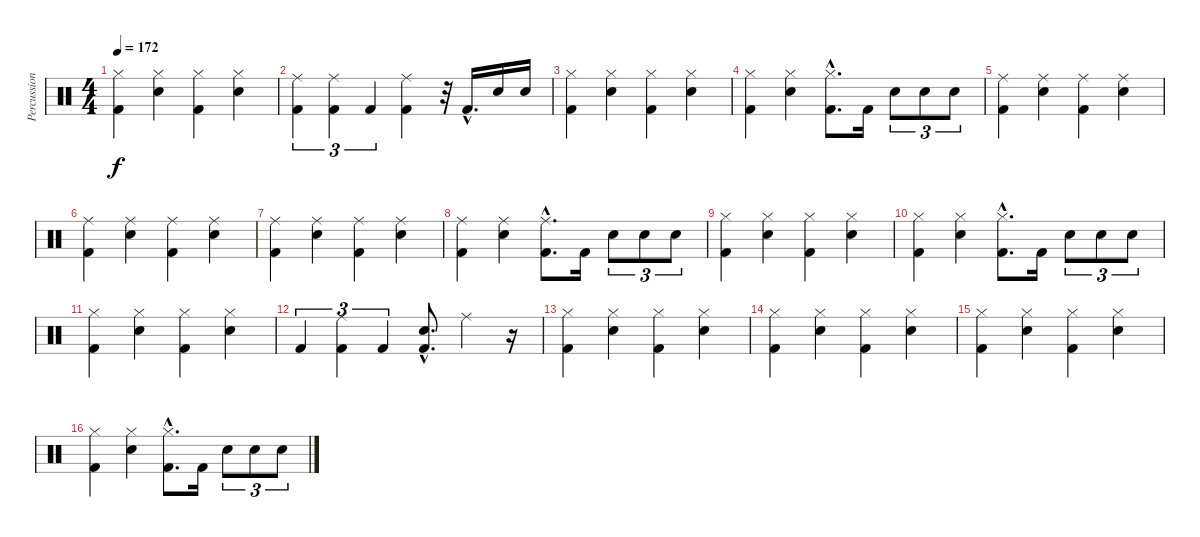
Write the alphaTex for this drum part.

\track ("Percussion" "Percussion") {instrument percussion}
\staff {score}
\articulation defaults
\ts (4 4)
\tempo 172
\clef neutral
\ks c
("Hi-Hat (closed)" "Kick (hit) 2").4{dy f} ("Hi-Hat (closed)" "Snare (hit) 2").4 ("Hi-Hat (closed)" "Kick (hit) 2").4 ("Hi-Hat (closed)" "Snare (hit) 2").4 |
("Ride (middle)" "Kick (hit) 2").4{tu (3 2)} ("Ride (middle)" "Kick (hit) 2").4{tu (3 2)} "Kick (hit) 2".4{tu (3 2)} ("Ride (middle)" "Kick (hit) 2").4 r.32 "Kick (hit) 2"{hac}.16{d} "Snare (hit) 2".16 "Snare (hit) 2".16 |
("Hi-Hat (closed)" "Kick (hit) 2").4 ("Hi-Hat (closed)" "Snare (hit) 2").4 ("Hi-Hat (closed)" "Kick (hit) 2").4 ("Hi-Hat (closed)" "Snare (hit) 2").4 |
("Hi-Hat (closed)" "Kick (hit) 2").4 ("Hi-Hat (closed)" "Snare (hit) 2").4 ("Hi-Hat (closed)"{hac} "Kick (hit) 2"{hac}).8{d} "Kick (hit) 2".16 "Snare (hit) 2".8{tu (3 2)} "Snare (hit) 2".8{tu (3 2)} "Snare (hit) 2".8{tu (3 2)} |
("Ride (middle)" "Kick (hit) 2").4 ("Ride (middle)" "Snare (hit) 2").4 ("Ride (middle)" "Kick (hit) 2").4 ("Ride (middle)" "Snare (hit) 2").4 |
("Ride (middle)" "Kick (hit) 2").4 ("Ride (middle)" "Snare (hit) 2").4 ("Ride (middle)" "Kick (hit) 2").4 ("Ride (middle)" "Snare (hit) 2").4 |
("Ride (middle)" "Kick (hit) 2").4 ("Ride (middle)" "Snare (hit) 2").4 ("Ride (middle)" "Kick (hit) 2").4 ("Ride (middle)" "Snare (hit) 2").4 |
("Ride (middle)" "Kick (hit) 2").4 ("Ride (middle)" "Snare (hit) 2").4 ("Ride (middle)"{hac} "Kick (hit) 2"{hac}).8{d} "Kick (hit) 2".16 "Snare (hit) 2".8{tu (3 2)} "Snare (hit) 2".8{tu (3 2)} "Snare (hit) 2".8{tu (3 2)} |
("Hi-Hat (closed)" "Kick (hit) 2").4 ("Hi-Hat (closed)" "Snare (hit) 2").4 ("Hi-Hat (closed)" "Kick (hit) 2").4 ("Hi-Hat (closed)" "Snare (hit) 2").4 |
("Hi-Hat (closed)" "Kick (hit) 2").4 ("Hi-Hat (closed)" "Snare (hit) 2").4 ("Hi-Hat (closed)"{hac} "Kick (hit) 2"{hac}).8{d} "Kick (hit) 2".16 "Snare (hit) 2".8{tu (3 2)} "Snare (hit) 2".8{tu (3 2)} "Snare (hit) 2".8{tu (3 2)} |
("Hi-Hat (closed)" "Kick (hit) 2").4 ("Hi-Hat (closed)" "Snare (hit) 2").4 ("Hi-Hat (closed)" "Kick (hit) 2").4 ("Hi-Hat (closed)" "Snare (hit) 2").4 |
"Kick (hit) 2".4{tu (3 2)} ("Ride (middle)" "Kick (hit) 2").4{tu (3 2)} "Kick (hit) 2".4{tu (3 2)} ("Snare (hit) 2"{hac} "Kick (hit) 2"{hac}).8{d} "Ride (middle)".4 r.16 |
("Hi-Hat (closed)" "Kick (hit) 2").4 ("Hi-Hat (closed)" "Snare (hit) 2").4 ("Hi-Hat (closed)" "Kick (hit) 2").4 ("Hi-Hat (closed)" "Snare (hit) 2").4 |
("Hi-Hat (closed)" "Kick (hit) 2").4 ("Hi-Hat (closed)" "Snare (hit) 2").4 ("Hi-Hat (closed)" "Kick (hit) 2").4 ("Hi-Hat (closed)" "Snare (hit) 2").4 |
("Hi-Hat (closed)" "Kick (hit) 2").4 ("Hi-Hat (closed)" "Snare (hit) 2").4 ("Hi-Hat (closed)" "Kick (hit) 2").4 ("Hi-Hat (closed)" "Snare (hit) 2").4 |
("Hi-Hat (closed)" "Kick (hit) 2").4 ("Hi-Hat (closed)" "Snare (hit) 2").4 ("Hi-Hat (closed)"{hac} "Kick (hit) 2"{hac}).8{d} "Kick (hit) 2".16 "Snare (hit) 2".8{tu (3 2)} "Snare (hit) 2".8{tu (3 2)} "Snare (hit) 2".8{tu (3 2)}
